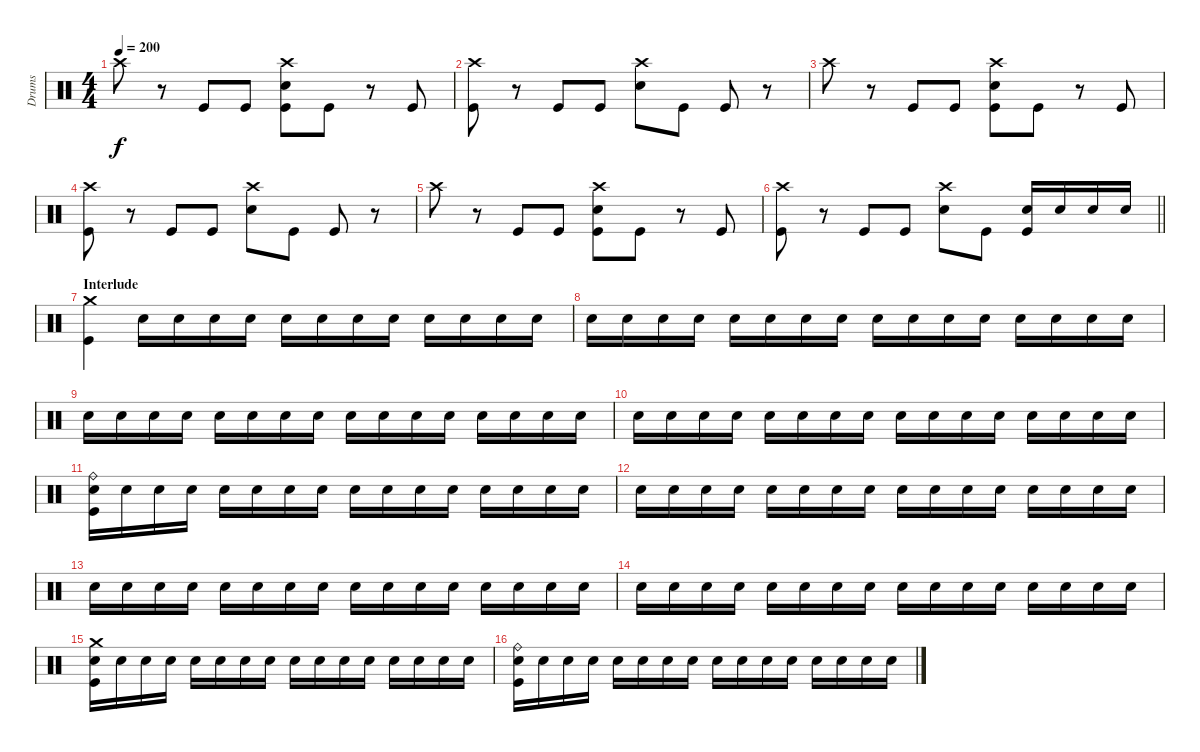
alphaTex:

\track ("Drums" "Drums") {instrument percussion}
\staff {score}
\articulation defaults
\ts (4 4)
\tempo 200
\clef neutral
\ks c "Crash high (hit)".8{dy f}
r.8 "Kick (hit)".8 "Kick (hit)".8 ("Crash high (hit)" "Electric Snare (hit)" "Kick (hit)").8 "Kick (hit)".8 r.8 "Kick (hit)".8 |
("Crash high (hit)" "Kick (hit)").8 r.8 "Kick (hit)".8 "Kick (hit)".8 ("Crash high (hit)" "Electric Snare (hit)").8 "Kick (hit)".8 "Kick (hit)".8 r.8 |
"Crash high (hit)".8 r.8 "Kick (hit)".8 "Kick (hit)".8 ("Crash high (hit)" "Electric Snare (hit)" "Kick (hit)").8 "Kick (hit)".8 r.8 "Kick (hit)".8 |
("Crash high (hit)" "Kick (hit)").8 r.8 "Kick (hit)".8 "Kick (hit)".8 ("Crash high (hit)" "Electric Snare (hit)").8 "Kick (hit)".8 "Kick (hit)".8 r.8 |
"Crash high (hit)".8 r.8 "Kick (hit)".8 "Kick (hit)".8 ("Crash high (hit)" "Electric Snare (hit)" "Kick (hit)").8 "Kick (hit)".8 r.8 "Kick (hit)".8 |
\barLineRight lightlight
("Crash high (hit)" "Kick (hit)").8 r.8 "Kick (hit)".8 "Kick (hit)".8 ("Crash high (hit)" "Electric Snare (hit)").8 "Kick (hit)".8 ("Electric Snare (hit)" "Kick (hit)").16 "Electric Snare (hit)".16 "Electric Snare (hit)".16 "Electric Snare (hit)".16 |
\section ("" "Interlude")
("Crash medium (hit)" "Kick (hit)").4 "Electric Snare (hit)".16 "Electric Snare (hit)".16 "Electric Snare (hit)".16 "Electric Snare (hit)".16 "Electric Snare (hit)".16 "Electric Snare (hit)".16 "Electric Snare (hit)".16 "Electric Snare (hit)".16 "Electric Snare (hit)".16 "Electric Snare (hit)".16 "Electric Snare (hit)".16 "Electric Snare (hit)".16 |
"Electric Snare (hit)".16 "Electric Snare (hit)".16 "Electric Snare (hit)".16 "Electric Snare (hit)".16 "Electric Snare (hit)".16 "Electric Snare (hit)".16 "Electric Snare (hit)".16 "Electric Snare (hit)".16 "Electric Snare (hit)".16 "Electric Snare (hit)".16 "Electric Snare (hit)".16 "Electric Snare (hit)".16 "Electric Snare (hit)".16 "Electric Snare (hit)".16 "Electric Snare (hit)".16 "Electric Snare (hit)".16 |
"Electric Snare (hit)".16 "Electric Snare (hit)".16 "Electric Snare (hit)".16 "Electric Snare (hit)".16 "Electric Snare (hit)".16 "Electric Snare (hit)".16 "Electric Snare (hit)".16 "Electric Snare (hit)".16 "Electric Snare (hit)".16 "Electric Snare (hit)".16 "Electric Snare (hit)".16 "Electric Snare (hit)".16 "Electric Snare (hit)".16 "Electric Snare (hit)".16 "Electric Snare (hit)".16 "Electric Snare (hit)".16 |
"Electric Snare (hit)".16 "Electric Snare (hit)".16 "Electric Snare (hit)".16 "Electric Snare (hit)".16 "Electric Snare (hit)".16 "Electric Snare (hit)".16 "Electric Snare (hit)".16 "Electric Snare (hit)".16 "Electric Snare (hit)".16 "Electric Snare (hit)".16 "Electric Snare (hit)".16 "Electric Snare (hit)".16 "Electric Snare (hit)".16 "Electric Snare (hit)".16 "Electric Snare (hit)".16 "Electric Snare (hit)".16 |
("Ride (bell)" "Electric Snare (hit)" "Kick (hit)").16 "Electric Snare (hit)".16 "Electric Snare (hit)".16 "Electric Snare (hit)".16 "Electric Snare (hit)".16 "Electric Snare (hit)".16 "Electric Snare (hit)".16 "Electric Snare (hit)".16 "Electric Snare (hit)".16 "Electric Snare (hit)".16 "Electric Snare (hit)".16 "Electric Snare (hit)".16 "Electric Snare (hit)".16 "Electric Snare (hit)".16 "Electric Snare (hit)".16 "Electric Snare (hit)".16 |
"Electric Snare (hit)".16 "Electric Snare (hit)".16 "Electric Snare (hit)".16 "Electric Snare (hit)".16 "Electric Snare (hit)".16 "Electric Snare (hit)".16 "Electric Snare (hit)".16 "Electric Snare (hit)".16 "Electric Snare (hit)".16 "Electric Snare (hit)".16 "Electric Snare (hit)".16 "Electric Snare (hit)".16 "Electric Snare (hit)".16 "Electric Snare (hit)".16 "Electric Snare (hit)".16 "Electric Snare (hit)".16 |
"Electric Snare (hit)".16 "Electric Snare (hit)".16 "Electric Snare (hit)".16 "Electric Snare (hit)".16 "Electric Snare (hit)".16 "Electric Snare (hit)".16 "Electric Snare (hit)".16 "Electric Snare (hit)".16 "Electric Snare (hit)".16 "Electric Snare (hit)".16 "Electric Snare (hit)".16 "Electric Snare (hit)".16 "Electric Snare (hit)".16 "Electric Snare (hit)".16 "Electric Snare (hit)".16 "Electric Snare (hit)".16 |
"Electric Snare (hit)".16 "Electric Snare (hit)".16 "Electric Snare (hit)".16 "Electric Snare (hit)".16 "Electric Snare (hit)".16 "Electric Snare (hit)".16 "Electric Snare (hit)".16 "Electric Snare (hit)".16 "Electric Snare (hit)".16 "Electric Snare (hit)".16 "Electric Snare (hit)".16 "Electric Snare (hit)".16 "Electric Snare (hit)".16 "Electric Snare (hit)".16 "Electric Snare (hit)".16 "Electric Snare (hit)".16 |
("Crash medium (hit)" "Electric Snare (hit)" "Kick (hit)").16 "Electric Snare (hit)".16 "Electric Snare (hit)".16 "Electric Snare (hit)".16 "Electric Snare (hit)".16 "Electric Snare (hit)".16 "Electric Snare (hit)".16 "Electric Snare (hit)".16 "Electric Snare (hit)".16 "Electric Snare (hit)".16 "Electric Snare (hit)".16 "Electric Snare (hit)".16 "Electric Snare (hit)".16 "Electric Snare (hit)".16 "Electric Snare (hit)".16 "Electric Snare (hit)".16 |
("Ride (bell)" "Electric Snare (hit)" "Kick (hit)").16 "Electric Snare (hit)".16 "Electric Snare (hit)".16 "Electric Snare (hit)".16 "Electric Snare (hit)".16 "Electric Snare (hit)".16 "Electric Snare (hit)".16 "Electric Snare (hit)".16 "Electric Snare (hit)".16 "Electric Snare (hit)".16 "Electric Snare (hit)".16 "Electric Snare (hit)".16 "Electric Snare (hit)".16 "Electric Snare (hit)".16 "Electric Snare (hit)".16 "Electric Snare (hit)".16
